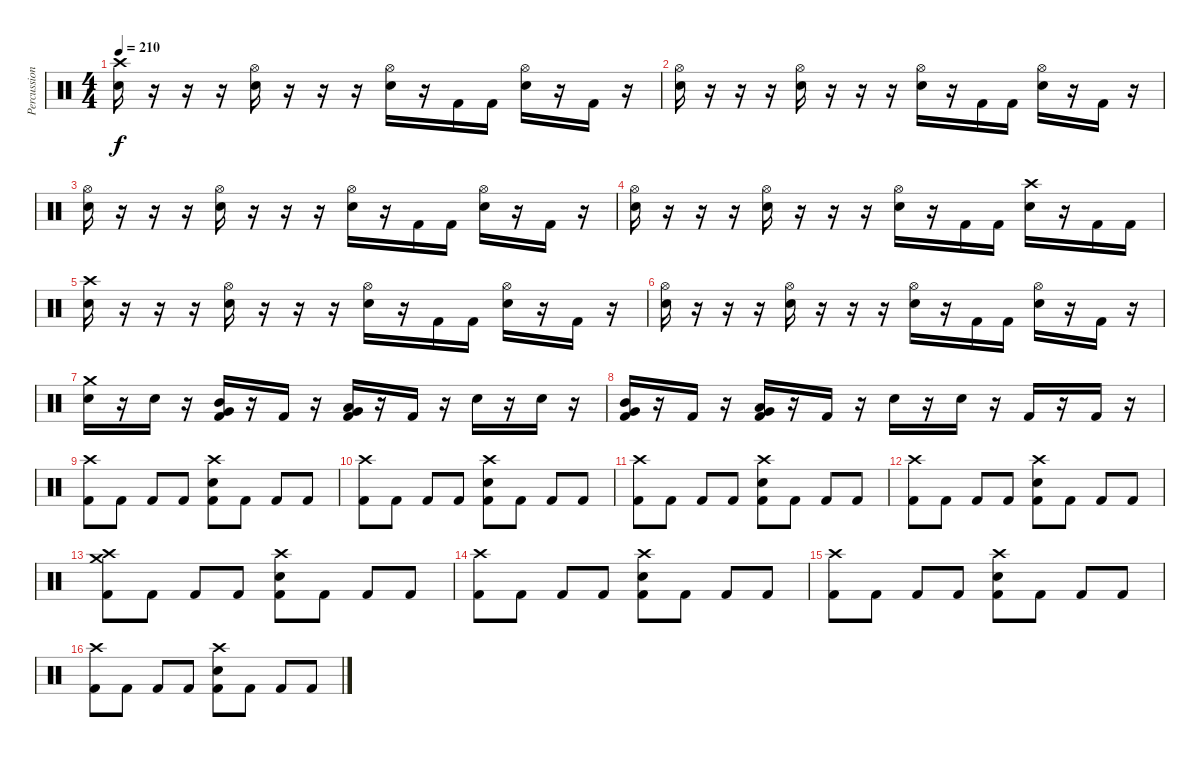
\track ("Percussion" "Percussion") {instrument percussion}
\staff {score}
\articulation defaults
\ts (4 4)
\tempo 210
\clef neutral
\ks c
("Crash high (hit)" "Snare (hit) 2").16{dy f} r.16 r.16 r.16 ("Hi-Hat (open)" "Snare (hit) 2").16 r.16 r.16 r.16 ("Hi-Hat (open)" "Snare (hit) 2").16 r.16 "Kick (hit) 2".16 "Kick (hit) 2".16 ("Hi-Hat (open)" "Snare (hit) 2").16 r.16 "Kick (hit) 2".16 r.16 |
("Hi-Hat (open)" "Snare (hit) 2").16 r.16 r.16 r.16 ("Hi-Hat (open)" "Snare (hit) 2").16 r.16 r.16 r.16 ("Hi-Hat (open)" "Snare (hit) 2").16 r.16 "Kick (hit) 2".16 "Kick (hit) 2".16 ("Hi-Hat (open)" "Snare (hit) 2").16 r.16 "Kick (hit) 2".16 r.16 |
("Hi-Hat (open)" "Snare (hit) 2").16 r.16 r.16 r.16 ("Hi-Hat (open)" "Snare (hit) 2").16 r.16 r.16 r.16 ("Hi-Hat (open)" "Snare (hit) 2").16 r.16 "Kick (hit) 2".16 "Kick (hit) 2".16 ("Hi-Hat (open)" "Snare (hit) 2").16 r.16 "Kick (hit) 2".16 r.16 |
("Hi-Hat (open)" "Snare (hit) 2").16 r.16 r.16 r.16 ("Hi-Hat (open)" "Snare (hit) 2").16 r.16 r.16 r.16 ("Hi-Hat (open)" "Snare (hit) 2").16 r.16 "Kick (hit) 2".16 "Kick (hit) 2".16 ("Crash high (hit)" "Snare (hit) 2").16 r.16 "Kick (hit) 2".16 "Kick (hit) 2".16 |
("Crash high (hit)" "Snare (hit) 2").16 r.16 r.16 r.16 ("Hi-Hat (open)" "Snare (hit) 2").16 r.16 r.16 r.16 ("Hi-Hat (open)" "Snare (hit) 2").16 r.16 "Kick (hit) 2".16 "Kick (hit) 2".16 ("Hi-Hat (open)" "Snare (hit) 2").16 r.16 "Kick (hit) 2".16 r.16 |
("Hi-Hat (open)" "Snare (hit) 2").16 r.16 r.16 r.16 ("Hi-Hat (open)" "Snare (hit) 2").16 r.16 r.16 r.16 ("Hi-Hat (open)" "Snare (hit) 2").16 r.16 "Kick (hit) 2".16 "Kick (hit) 2".16 ("Hi-Hat (open)" "Snare (hit) 2").16 r.16 "Kick (hit) 2".16 r.16 |
("Crash medium (hit)" "Snare (hit) 2").16 r.16 "Snare (hit) 2".16 r.16 ("Mid Tom (hit)" "Very Low Tom (hit)" "Kick (hit) 2").16 r.16 "Kick (hit) 2".16 r.16 ("Low Tom (hit)" "Very Low Tom (hit)" "Kick (hit) 2").16 r.16 "Kick (hit) 2".16 r.16 "Snare (hit) 2".16 r.16 "Snare (hit) 2".16 r.16 |
("Mid Tom (hit)" "Very Low Tom (hit)" "Kick (hit) 2").16 r.16 "Kick (hit) 2".16 r.16 ("Low Tom (hit)" "Very Low Tom (hit)" "Kick (hit) 2").16 r.16 "Kick (hit) 2".16 r.16 "Snare (hit) 2".16 r.16 "Snare (hit) 2".16 r.16 "Kick (hit) 2".16 r.16 "Kick (hit) 2".16 r.16 |
("Crash high (hit)" "Kick (hit) 2").8 "Kick (hit) 2".8 "Kick (hit) 2".8 "Kick (hit) 2".8 ("Crash high (hit)" "Snare (hit) 2" "Kick (hit) 2").8 "Kick (hit) 2".8 "Kick (hit) 2".8 "Kick (hit) 2".8 |
("Crash high (hit)" "Kick (hit) 2").8 "Kick (hit) 2".8 "Kick (hit) 2".8 "Kick (hit) 2".8 ("Crash high (hit)" "Snare (hit) 2" "Kick (hit) 2").8 "Kick (hit) 2".8 "Kick (hit) 2".8 "Kick (hit) 2".8 |
("Crash high (hit)" "Kick (hit) 2").8 "Kick (hit) 2".8 "Kick (hit) 2".8 "Kick (hit) 2".8 ("Crash high (hit)" "Snare (hit) 2" "Kick (hit) 2").8 "Kick (hit) 2".8 "Kick (hit) 2".8 "Kick (hit) 2".8 |
("Crash high (hit)" "Kick (hit) 2").8 "Kick (hit) 2".8 "Kick (hit) 2".8 "Kick (hit) 2".8 ("Crash high (hit)" "Snare (hit) 2" "Kick (hit) 2").8 "Kick (hit) 2".8 "Kick (hit) 2".8 "Kick (hit) 2".8 |
("Crash high (hit)" "Crash medium (hit)" "Kick (hit) 2").8 "Kick (hit) 2".8 "Kick (hit) 2".8 "Kick (hit) 2".8 ("Crash high (hit)" "Snare (hit) 2" "Kick (hit) 2").8 "Kick (hit) 2".8 "Kick (hit) 2".8 "Kick (hit) 2".8 |
("Crash high (hit)" "Kick (hit) 2").8 "Kick (hit) 2".8 "Kick (hit) 2".8 "Kick (hit) 2".8 ("Crash high (hit)" "Snare (hit) 2" "Kick (hit) 2").8 "Kick (hit) 2".8 "Kick (hit) 2".8 "Kick (hit) 2".8 |
("Crash high (hit)" "Kick (hit) 2").8 "Kick (hit) 2".8 "Kick (hit) 2".8 "Kick (hit) 2".8 ("Crash high (hit)" "Snare (hit) 2" "Kick (hit) 2").8 "Kick (hit) 2".8 "Kick (hit) 2".8 "Kick (hit) 2".8 |
("Crash high (hit)" "Kick (hit) 2").8 "Kick (hit) 2".8 "Kick (hit) 2".8 "Kick (hit) 2".8 ("Crash high (hit)" "Snare (hit) 2" "Kick (hit) 2").8 "Kick (hit) 2".8 "Kick (hit) 2".8 "Kick (hit) 2".8
